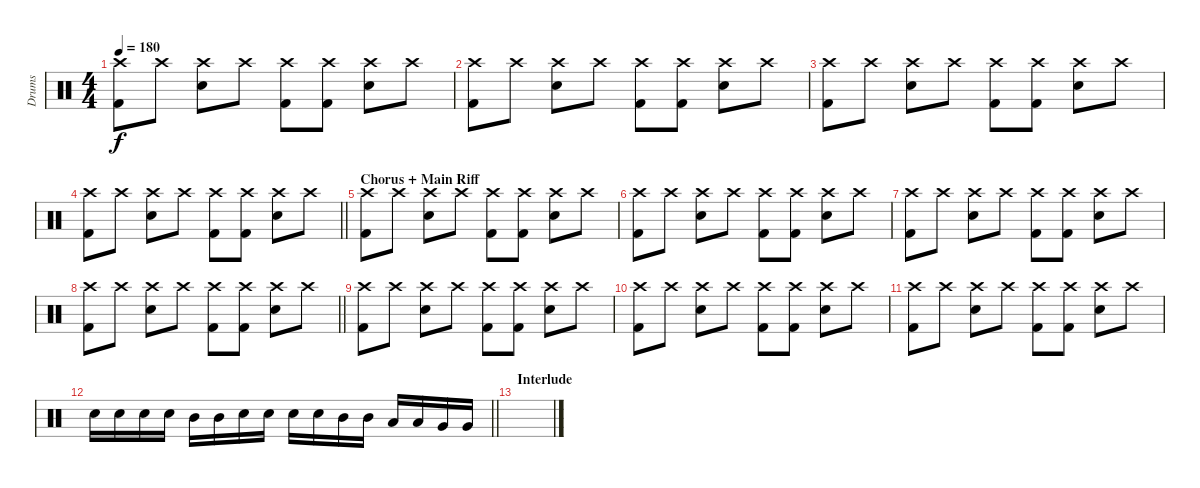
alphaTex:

\track ("Drums" "Drums") {instrument percussion}
\staff {score}
\articulation defaults
\ts (4 4)
\tempo 180
\clef neutral
\ks c
("Crash high (hit)" "Kick (hit) 2").8{dy f} "Crash high (hit)".8 ("Crash high (hit)" "Snare (hit) 2").8 "Crash high (hit)".8 ("Crash high (hit)" "Kick (hit) 2").8 ("Crash high (hit)" "Kick (hit) 2").8 ("Crash high (hit)" "Snare (hit) 2").8 "Crash high (hit)".8 |
("Crash high (hit)" "Kick (hit) 2").8 "Crash high (hit)".8 ("Crash high (hit)" "Snare (hit) 2").8 "Crash high (hit)".8 ("Crash high (hit)" "Kick (hit) 2").8 ("Crash high (hit)" "Kick (hit) 2").8 ("Crash high (hit)" "Snare (hit) 2").8 "Crash high (hit)".8 |
("Crash high (hit)" "Kick (hit) 2").8 "Crash high (hit)".8 ("Crash high (hit)" "Snare (hit) 2").8 "Crash high (hit)".8 ("Crash high (hit)" "Kick (hit) 2").8 ("Crash high (hit)" "Kick (hit) 2").8 ("Crash high (hit)" "Snare (hit) 2").8 "Crash high (hit)".8 |
\barLineRight lightlight
("Crash high (hit)" "Kick (hit) 2").8 "Crash high (hit)".8 ("Crash high (hit)" "Snare (hit) 2").8 "Crash high (hit)".8 ("Crash high (hit)" "Kick (hit) 2").8 ("Crash high (hit)" "Kick (hit) 2").8 ("Crash high (hit)" "Snare (hit) 2").8 "Crash high (hit)".8 |
\section ("" "Chorus + Main Riff")
("Crash high (hit)" "Kick (hit) 2").8 "Crash high (hit)".8 ("Crash high (hit)" "Snare (hit) 2").8 "Crash high (hit)".8 ("Crash high (hit)" "Kick (hit) 2").8 ("Crash high (hit)" "Kick (hit) 2").8 ("Crash high (hit)" "Snare (hit) 2").8 "Crash high (hit)".8 |
("Crash high (hit)" "Kick (hit) 2").8 "Crash high (hit)".8 ("Crash high (hit)" "Snare (hit) 2").8 "Crash high (hit)".8 ("Crash high (hit)" "Kick (hit) 2").8 ("Crash high (hit)" "Kick (hit) 2").8 ("Crash high (hit)" "Snare (hit) 2").8 "Crash high (hit)".8 |
("Crash high (hit)" "Kick (hit) 2").8 "Crash high (hit)".8 ("Crash high (hit)" "Snare (hit) 2").8 "Crash high (hit)".8 ("Crash high (hit)" "Kick (hit) 2").8 ("Crash high (hit)" "Kick (hit) 2").8 ("Crash high (hit)" "Snare (hit) 2").8 "Crash high (hit)".8 |
\barLineRight lightlight
("Crash high (hit)" "Kick (hit) 2").8 "Crash high (hit)".8 ("Crash high (hit)" "Snare (hit) 2").8 "Crash high (hit)".8 ("Crash high (hit)" "Kick (hit) 2").8 ("Crash high (hit)" "Kick (hit) 2").8 ("Crash high (hit)" "Snare (hit) 2").8 "Crash high (hit)".8 |
("Crash high (hit)" "Kick (hit) 2").8 "Crash high (hit)".8 ("Crash high (hit)" "Snare (hit) 2").8 "Crash high (hit)".8 ("Crash high (hit)" "Kick (hit) 2").8 ("Crash high (hit)" "Kick (hit) 2").8 ("Crash high (hit)" "Snare (hit) 2").8 "Crash high (hit)".8 |
("Crash high (hit)" "Kick (hit) 2").8 "Crash high (hit)".8 ("Crash high (hit)" "Snare (hit) 2").8 "Crash high (hit)".8 ("Crash high (hit)" "Kick (hit) 2").8 ("Crash high (hit)" "Kick (hit) 2").8 ("Crash high (hit)" "Snare (hit) 2").8 "Crash high (hit)".8 |
("Crash high (hit)" "Kick (hit) 2").8 "Crash high (hit)".8 ("Crash high (hit)" "Snare (hit) 2").8 "Crash high (hit)".8 ("Crash high (hit)" "Kick (hit) 2").8 ("Crash high (hit)" "Kick (hit) 2").8 ("Crash high (hit)" "Snare (hit) 2").8 "Crash high (hit)".8 |
\barLineRight lightlight "Snare (hit) 2".16 "Snare (hit) 2".16 "Snare (hit) 2".16 "Snare (hit) 2".16 "Mid Tom (hit)".16 "Mid Tom (hit)".16 "Snare (hit) 2".16 "Snare (hit) 2".16 "Snare (hit) 2".16 "Snare (hit) 2".16 "Mid Tom (hit)".16 "Mid Tom (hit)".16 "Low Tom (hit)".16 "Low Tom (hit)".16 "Very Low Tom (hit)".16 "Very Low Tom (hit)".16
|
\section ("" "Interlude")
